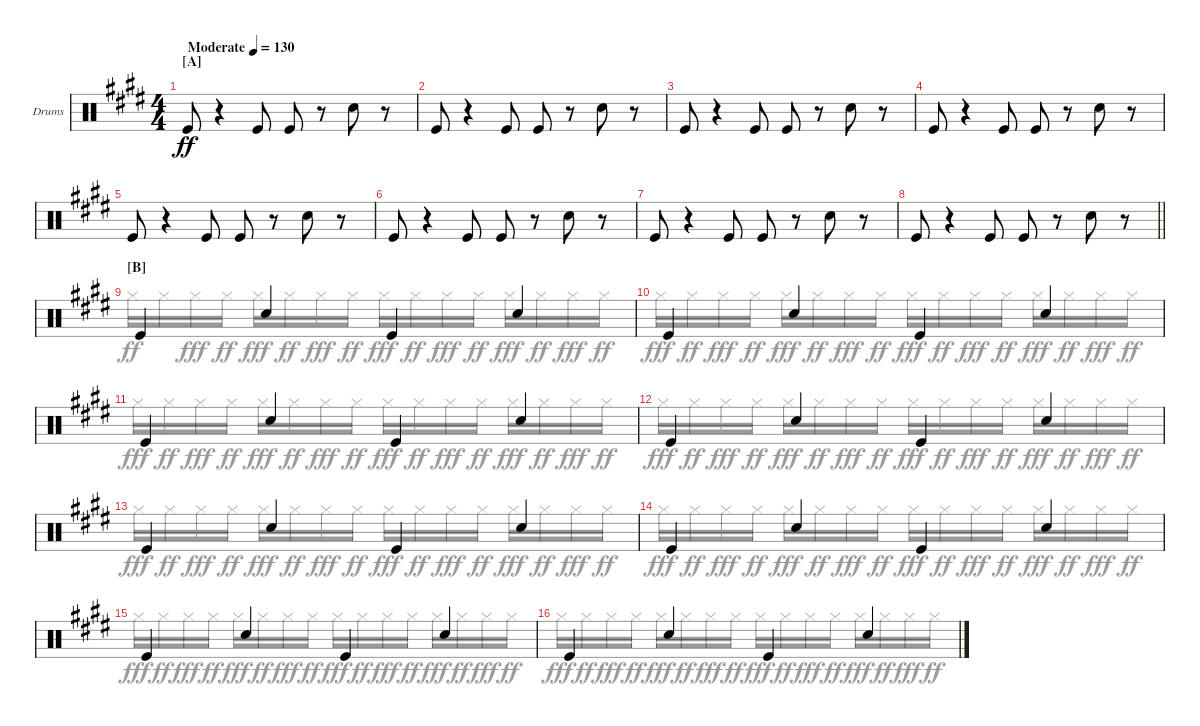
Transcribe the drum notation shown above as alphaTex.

\bracketExtendMode groupsimilarinstruments
\firstSystemTrackNameOrientation horizontal
\otherSystemsTrackNameOrientation horizontal
\track ("Fabrizo Moretti" "Drums") {instrument percussion}
\staff {score}
\articulation defaults
\voice
\ts (4 4)
\beaming (8 2 2 2 2)
\section ("A" "")
\tempo (130 "Moderate")
\clef neutral
\ks e "Kick (hit)".8{dy ff}
r.4 "Kick (hit)".8 "Kick (hit)".8 r.8 "Snare (hit) 2".8 r.8 |
"Kick (hit)".8 r.4 "Kick (hit)".8 "Kick (hit)".8 r.8 "Snare (hit) 2".8 r.8 |
"Kick (hit)".8 r.4 "Kick (hit)".8 "Kick (hit)".8 r.8 "Snare (hit) 2".8 r.8 |
"Kick (hit)".8 r.4 "Kick (hit)".8 "Kick (hit)".8 r.8 "Snare (hit) 2".8 r.8 |
"Kick (hit)".8 r.4 "Kick (hit)".8 "Kick (hit)".8 r.8 "Snare (hit) 2".8 r.8 |
"Kick (hit)".8 r.4 "Kick (hit)".8 "Kick (hit)".8 r.8 "Snare (hit) 2".8 r.8 |
"Kick (hit)".8 r.4 "Kick (hit)".8 "Kick (hit)".8 r.8 "Snare (hit) 2".8 r.8 |
\barLineRight lightlight "Kick (hit)".8
r.4 "Kick (hit)".8 "Kick (hit)".8 r.8 "Snare (hit) 2".8 r.8 |
\section ("B" "")
"Kick (hit)".4 "Snare (hit) 2".4 "Kick (hit)".4 "Snare (hit) 2".4 |
"Kick (hit)".4 "Snare (hit) 2".4 "Kick (hit)".4 "Snare (hit) 2".4 |
"Kick (hit)".4 "Snare (hit) 2".4 "Kick (hit)".4 "Snare (hit) 2".4 |
"Kick (hit)".4 "Snare (hit) 2".4 "Kick (hit)".4 "Snare (hit) 2".4 |
"Kick (hit)".4 "Snare (hit) 2".4 "Kick (hit)".4 "Snare (hit) 2".4 |
"Kick (hit)".4 "Snare (hit) 2".4 "Kick (hit)".4 "Snare (hit) 2".4 |
"Kick (hit)".4 "Snare (hit) 2".4 "Kick (hit)".4 "Snare (hit) 2".4 |
"Kick (hit)".4 "Snare (hit) 2".4 "Kick (hit)".4 "Snare (hit) 2".4
\voice
\clef neutral
\ottava regular
\simile none
\ks e
|
|
|
|
|
|
|
\barLineRight lightlight
|
"Hi-Hat (closed)".16 "Hi-Hat (closed)".16{dy ff} "Hi-Hat (closed)".16{dy fff} "Hi-Hat (closed)".16{dy ff} "Hi-Hat (closed)".16{dy fff} "Hi-Hat (closed)".16{dy ff} "Hi-Hat (closed)".16{dy fff} "Hi-Hat (closed)".16{dy ff} "Hi-Hat (closed)".16{dy fff} "Hi-Hat (closed)".16{dy ff} "Hi-Hat (closed)".16{dy fff} "Hi-Hat (closed)".16{dy ff} "Hi-Hat (closed)".16{dy fff} "Hi-Hat (closed)".16{dy ff} "Hi-Hat (closed)".16{dy fff} "Hi-Hat (closed)".16{dy ff} |
"Hi-Hat (closed)".16{dy fff} "Hi-Hat (closed)".16{dy ff} "Hi-Hat (closed)".16{dy fff} "Hi-Hat (closed)".16{dy ff} "Hi-Hat (closed)".16{dy fff} "Hi-Hat (closed)".16{dy ff} "Hi-Hat (closed)".16{dy fff} "Hi-Hat (closed)".16{dy ff} "Hi-Hat (closed)".16{dy fff} "Hi-Hat (closed)".16{dy ff} "Hi-Hat (closed)".16{dy fff} "Hi-Hat (closed)".16{dy ff} "Hi-Hat (closed)".16{dy fff} "Hi-Hat (closed)".16{dy ff} "Hi-Hat (closed)".16{dy fff} "Hi-Hat (closed)".16{dy ff} |
"Hi-Hat (closed)".16{dy fff} "Hi-Hat (closed)".16{dy ff} "Hi-Hat (closed)".16{dy fff} "Hi-Hat (closed)".16{dy ff} "Hi-Hat (closed)".16{dy fff} "Hi-Hat (closed)".16{dy ff} "Hi-Hat (closed)".16{dy fff} "Hi-Hat (closed)".16{dy ff} "Hi-Hat (closed)".16{dy fff} "Hi-Hat (closed)".16{dy ff} "Hi-Hat (closed)".16{dy fff} "Hi-Hat (closed)".16{dy ff} "Hi-Hat (closed)".16{dy fff} "Hi-Hat (closed)".16{dy ff} "Hi-Hat (closed)".16{dy fff} "Hi-Hat (closed)".16{dy ff} |
"Hi-Hat (closed)".16{dy fff} "Hi-Hat (closed)".16{dy ff} "Hi-Hat (closed)".16{dy fff} "Hi-Hat (closed)".16{dy ff} "Hi-Hat (closed)".16{dy fff} "Hi-Hat (closed)".16{dy ff} "Hi-Hat (closed)".16{dy fff} "Hi-Hat (closed)".16{dy ff} "Hi-Hat (closed)".16{dy fff} "Hi-Hat (closed)".16{dy ff} "Hi-Hat (closed)".16{dy fff} "Hi-Hat (closed)".16{dy ff} "Hi-Hat (closed)".16{dy fff} "Hi-Hat (closed)".16{dy ff} "Hi-Hat (closed)".16{dy fff} "Hi-Hat (closed)".16{dy ff} |
"Hi-Hat (closed)".16{dy fff} "Hi-Hat (closed)".16{dy ff} "Hi-Hat (closed)".16{dy fff} "Hi-Hat (closed)".16{dy ff} "Hi-Hat (closed)".16{dy fff} "Hi-Hat (closed)".16{dy ff} "Hi-Hat (closed)".16{dy fff} "Hi-Hat (closed)".16{dy ff} "Hi-Hat (closed)".16{dy fff} "Hi-Hat (closed)".16{dy ff} "Hi-Hat (closed)".16{dy fff} "Hi-Hat (closed)".16{dy ff} "Hi-Hat (closed)".16{dy fff} "Hi-Hat (closed)".16{dy ff} "Hi-Hat (closed)".16{dy fff} "Hi-Hat (closed)".16{dy ff} |
"Hi-Hat (closed)".16{dy fff} "Hi-Hat (closed)".16{dy ff} "Hi-Hat (closed)".16{dy fff} "Hi-Hat (closed)".16{dy ff} "Hi-Hat (closed)".16{dy fff} "Hi-Hat (closed)".16{dy ff} "Hi-Hat (closed)".16{dy fff} "Hi-Hat (closed)".16{dy ff} "Hi-Hat (closed)".16{dy fff} "Hi-Hat (closed)".16{dy ff} "Hi-Hat (closed)".16{dy fff} "Hi-Hat (closed)".16{dy ff} "Hi-Hat (closed)".16{dy fff} "Hi-Hat (closed)".16{dy ff} "Hi-Hat (closed)".16{dy fff} "Hi-Hat (closed)".16{dy ff} |
"Hi-Hat (closed)".16{dy fff} "Hi-Hat (closed)".16{dy ff} "Hi-Hat (closed)".16{dy fff} "Hi-Hat (closed)".16{dy ff} "Hi-Hat (closed)".16{dy fff} "Hi-Hat (closed)".16{dy ff} "Hi-Hat (closed)".16{dy fff} "Hi-Hat (closed)".16{dy ff} "Hi-Hat (closed)".16{dy fff} "Hi-Hat (closed)".16{dy ff} "Hi-Hat (closed)".16{dy fff} "Hi-Hat (closed)".16{dy ff} "Hi-Hat (closed)".16{dy fff} "Hi-Hat (closed)".16{dy ff} "Hi-Hat (closed)".16{dy fff} "Hi-Hat (closed)".16{dy ff} |
"Hi-Hat (closed)".16{dy fff} "Hi-Hat (closed)".16{dy ff} "Hi-Hat (closed)".16{dy fff} "Hi-Hat (closed)".16{dy ff} "Hi-Hat (closed)".16{dy fff} "Hi-Hat (closed)".16{dy ff} "Hi-Hat (closed)".16{dy fff} "Hi-Hat (closed)".16{dy ff} "Hi-Hat (closed)".16{dy fff} "Hi-Hat (closed)".16{dy ff} "Hi-Hat (closed)".16{dy fff} "Hi-Hat (closed)".16{dy ff} "Hi-Hat (closed)".16{dy fff} "Hi-Hat (closed)".16{dy ff} "Hi-Hat (closed)".16{dy fff} "Hi-Hat (closed)".16{dy ff}
